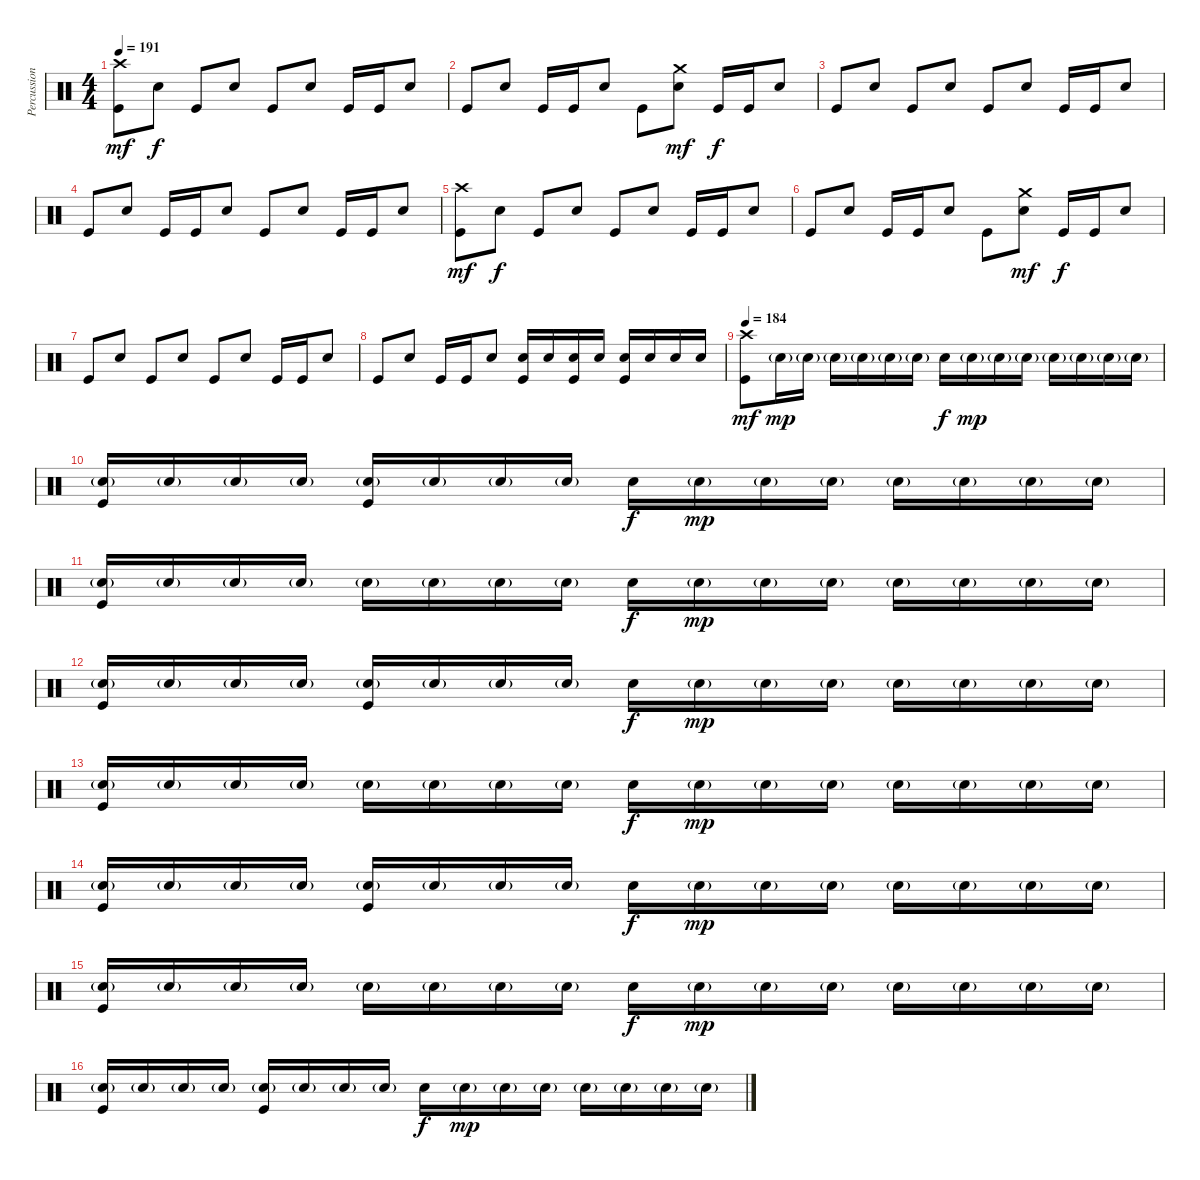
\track ("Percussion" "Percussion") {instrument percussion}
\staff {score}
\articulation defaults
\ts (4 4)
\tempo 191
\clef neutral
\ks c
("Crash high (hit)" "Kick (hit)").8{dy mf} "Electric Snare (hit)".8{dy f} "Kick (hit)".8 "Electric Snare (hit)".8 "Kick (hit)".8 "Electric Snare (hit)".8 "Kick (hit)".16 "Kick (hit)".16 "Electric Snare (hit)".8 |
"Kick (hit)".8 "Electric Snare (hit)".8 "Kick (hit)".16 "Kick (hit)".16 "Electric Snare (hit)".8 "Kick (hit)".8 ("Crash medium (hit)" "Electric Snare (hit)").8{dy mf} "Kick (hit)".16{dy f} "Kick (hit)".16 "Electric Snare (hit)".8 |
"Kick (hit)".8 "Electric Snare (hit)".8 "Kick (hit)".8 "Electric Snare (hit)".8 "Kick (hit)".8 "Electric Snare (hit)".8 "Kick (hit)".16 "Kick (hit)".16 "Electric Snare (hit)".8 |
"Kick (hit)".8 "Electric Snare (hit)".8 "Kick (hit)".16 "Kick (hit)".16 "Electric Snare (hit)".8 "Kick (hit)".8 "Electric Snare (hit)".8 "Kick (hit)".16 "Kick (hit)".16 "Electric Snare (hit)".8 |
("Crash high (hit)" "Kick (hit)").8{dy mf} "Electric Snare (hit)".8{dy f} "Kick (hit)".8 "Electric Snare (hit)".8 "Kick (hit)".8 "Electric Snare (hit)".8 "Kick (hit)".16 "Kick (hit)".16 "Electric Snare (hit)".8 |
"Kick (hit)".8 "Electric Snare (hit)".8 "Kick (hit)".16 "Kick (hit)".16 "Electric Snare (hit)".8 "Kick (hit)".8 ("Crash medium (hit)" "Electric Snare (hit)").8{dy mf} "Kick (hit)".16{dy f} "Kick (hit)".16 "Electric Snare (hit)".8 |
"Kick (hit)".8 "Electric Snare (hit)".8 "Kick (hit)".8 "Electric Snare (hit)".8 "Kick (hit)".8 "Electric Snare (hit)".8 "Kick (hit)".16 "Kick (hit)".16 "Electric Snare (hit)".8 |
"Kick (hit)".8 "Electric Snare (hit)".8 "Kick (hit)".16 "Kick (hit)".16 "Electric Snare (hit)".8 ("Electric Snare (hit)" "Kick (hit)").16 "Electric Snare (hit)".16 ("Electric Snare (hit)" "Kick (hit)").16 "Electric Snare (hit)".16 ("Electric Snare (hit)" "Kick (hit)").16 "Electric Snare (hit)".16 "Electric Snare (hit)".16 "Electric Snare (hit)".16 |
\tempo 184
("Crash high (hit)" "Kick (hit)").8{dy mf} "Electric Snare (hit)"{g}.16{dy mp} "Electric Snare (hit)"{g}.16 "Electric Snare (hit)"{g}.16 "Electric Snare (hit)"{g}.16 "Electric Snare (hit)"{g}.16 "Electric Snare (hit)"{g}.16 "Electric Snare (hit)".16{dy f} "Electric Snare (hit)"{g}.16{dy mp} "Electric Snare (hit)"{g}.16 "Electric Snare (hit)"{g}.16 "Electric Snare (hit)"{g}.16 "Electric Snare (hit)"{g}.16 "Electric Snare (hit)"{g}.16 "Electric Snare (hit)"{g}.16 |
("Electric Snare (hit)"{g} "Kick (hit)").16 "Electric Snare (hit)"{g}.16 "Electric Snare (hit)"{g}.16 "Electric Snare (hit)"{g}.16 ("Electric Snare (hit)"{g} "Kick (hit)").16 "Electric Snare (hit)"{g}.16 "Electric Snare (hit)"{g}.16 "Electric Snare (hit)"{g}.16 "Electric Snare (hit)".16{dy f} "Electric Snare (hit)"{g}.16{dy mp} "Electric Snare (hit)"{g}.16 "Electric Snare (hit)"{g}.16 "Electric Snare (hit)"{g}.16 "Electric Snare (hit)"{g}.16 "Electric Snare (hit)"{g}.16 "Electric Snare (hit)"{g}.16 |
("Electric Snare (hit)"{g} "Kick (hit)").16 "Electric Snare (hit)"{g}.16 "Electric Snare (hit)"{g}.16 "Electric Snare (hit)"{g}.16 "Electric Snare (hit)"{g}.16 "Electric Snare (hit)"{g}.16 "Electric Snare (hit)"{g}.16 "Electric Snare (hit)"{g}.16 "Electric Snare (hit)".16{dy f} "Electric Snare (hit)"{g}.16{dy mp} "Electric Snare (hit)"{g}.16 "Electric Snare (hit)"{g}.16 "Electric Snare (hit)"{g}.16 "Electric Snare (hit)"{g}.16 "Electric Snare (hit)"{g}.16 "Electric Snare (hit)"{g}.16 |
("Electric Snare (hit)"{g} "Kick (hit)").16 "Electric Snare (hit)"{g}.16 "Electric Snare (hit)"{g}.16 "Electric Snare (hit)"{g}.16 ("Electric Snare (hit)"{g} "Kick (hit)").16 "Electric Snare (hit)"{g}.16 "Electric Snare (hit)"{g}.16 "Electric Snare (hit)"{g}.16 "Electric Snare (hit)".16{dy f} "Electric Snare (hit)"{g}.16{dy mp} "Electric Snare (hit)"{g}.16 "Electric Snare (hit)"{g}.16 "Electric Snare (hit)"{g}.16 "Electric Snare (hit)"{g}.16 "Electric Snare (hit)"{g}.16 "Electric Snare (hit)"{g}.16 |
("Electric Snare (hit)"{g} "Kick (hit)").16 "Electric Snare (hit)"{g}.16 "Electric Snare (hit)"{g}.16 "Electric Snare (hit)"{g}.16 "Electric Snare (hit)"{g}.16 "Electric Snare (hit)"{g}.16 "Electric Snare (hit)"{g}.16 "Electric Snare (hit)"{g}.16 "Electric Snare (hit)".16{dy f} "Electric Snare (hit)"{g}.16{dy mp} "Electric Snare (hit)"{g}.16 "Electric Snare (hit)"{g}.16 "Electric Snare (hit)"{g}.16 "Electric Snare (hit)"{g}.16 "Electric Snare (hit)"{g}.16 "Electric Snare (hit)"{g}.16 |
("Electric Snare (hit)"{g} "Kick (hit)").16 "Electric Snare (hit)"{g}.16 "Electric Snare (hit)"{g}.16 "Electric Snare (hit)"{g}.16 ("Electric Snare (hit)"{g} "Kick (hit)").16 "Electric Snare (hit)"{g}.16 "Electric Snare (hit)"{g}.16 "Electric Snare (hit)"{g}.16 "Electric Snare (hit)".16{dy f} "Electric Snare (hit)"{g}.16{dy mp} "Electric Snare (hit)"{g}.16 "Electric Snare (hit)"{g}.16 "Electric Snare (hit)"{g}.16 "Electric Snare (hit)"{g}.16 "Electric Snare (hit)"{g}.16 "Electric Snare (hit)"{g}.16 |
("Electric Snare (hit)"{g} "Kick (hit)").16 "Electric Snare (hit)"{g}.16 "Electric Snare (hit)"{g}.16 "Electric Snare (hit)"{g}.16 "Electric Snare (hit)"{g}.16 "Electric Snare (hit)"{g}.16 "Electric Snare (hit)"{g}.16 "Electric Snare (hit)"{g}.16 "Electric Snare (hit)".16{dy f} "Electric Snare (hit)"{g}.16{dy mp} "Electric Snare (hit)"{g}.16 "Electric Snare (hit)"{g}.16 "Electric Snare (hit)"{g}.16 "Electric Snare (hit)"{g}.16 "Electric Snare (hit)"{g}.16 "Electric Snare (hit)"{g}.16 |
("Electric Snare (hit)"{g} "Kick (hit)").16 "Electric Snare (hit)"{g}.16 "Electric Snare (hit)"{g}.16 "Electric Snare (hit)"{g}.16 ("Electric Snare (hit)"{g} "Kick (hit)").16 "Electric Snare (hit)"{g}.16 "Electric Snare (hit)"{g}.16 "Electric Snare (hit)"{g}.16 "Electric Snare (hit)".16{dy f} "Electric Snare (hit)"{g}.16{dy mp} "Electric Snare (hit)"{g}.16 "Electric Snare (hit)"{g}.16 "Electric Snare (hit)"{g}.16 "Electric Snare (hit)"{g}.16 "Electric Snare (hit)"{g}.16 "Electric Snare (hit)"{g}.16
